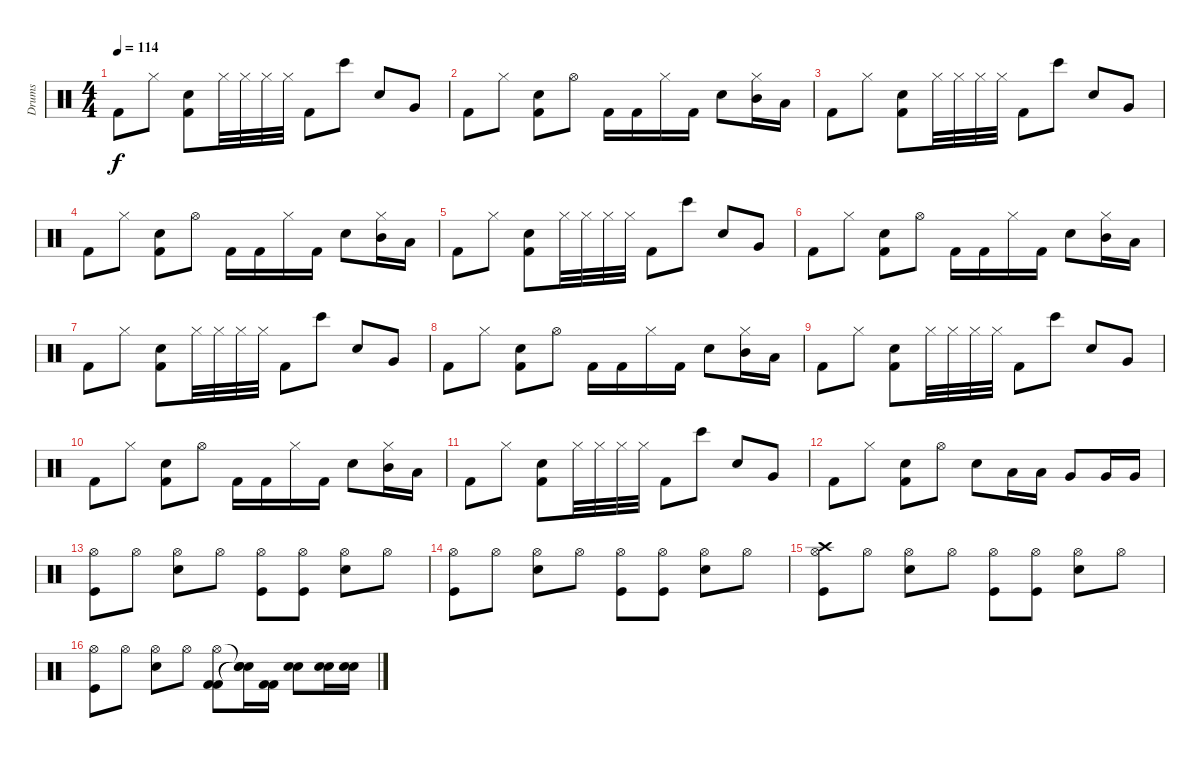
\track ("Drums               " "Drums     ") {instrument percussion}
\staff {score}
\articulation defaults
\ts (4 4)
\tempo 114
\clef neutral
\ks c "Kick (hit) 2".8{dy f} "Hi-Hat (closed)".8
("Snare (hit) 2" "Kick (hit) 2").8 "Hi-Hat (closed)".32 "Hi-Hat (closed)".32 "Hi-Hat (closed)".32 "Hi-Hat (closed)".32 "Kick (hit) 2".8 "Bongo High (hit)".8 "Snare (hit) 2".8 "Very Low Tom (hit)".8 |
"Kick (hit) 2".8 "Hi-Hat (closed)".8 ("Snare (hit) 2" "Kick (hit) 2").8 "Hi-Hat (open)".8 "Kick (hit) 2".16 "Kick (hit) 2".16 "Hi-Hat (closed)".16 "Kick (hit) 2".16 "Snare (hit) 2".8 ("Hi-Hat (closed)" "Mid Tom (hit)").16 "Low Tom (hit)".16 |
"Kick (hit) 2".8 "Hi-Hat (closed)".8 ("Snare (hit) 2" "Kick (hit) 2").8 "Hi-Hat (closed)".32 "Hi-Hat (closed)".32 "Hi-Hat (closed)".32 "Hi-Hat (closed)".32 "Kick (hit) 2".8 "Bongo High (hit)".8 "Snare (hit) 2".8 "Very Low Tom (hit)".8 |
"Kick (hit) 2".8 "Hi-Hat (closed)".8 ("Snare (hit) 2" "Kick (hit) 2").8 "Hi-Hat (open)".8 "Kick (hit) 2".16 "Kick (hit) 2".16 "Hi-Hat (closed)".16 "Kick (hit) 2".16 "Snare (hit) 2".8 ("Hi-Hat (closed)" "Mid Tom (hit)").16 "Low Tom (hit)".16 |
"Kick (hit) 2".8 "Hi-Hat (closed)".8 ("Snare (hit) 2" "Kick (hit) 2").8 "Hi-Hat (closed)".32 "Hi-Hat (closed)".32 "Hi-Hat (closed)".32 "Hi-Hat (closed)".32 "Kick (hit) 2".8 "Bongo High (hit)".8 "Snare (hit) 2".8 "Very Low Tom (hit)".8 |
"Kick (hit) 2".8 "Hi-Hat (closed)".8 ("Snare (hit) 2" "Kick (hit) 2").8 "Hi-Hat (open)".8 "Kick (hit) 2".16 "Kick (hit) 2".16 "Hi-Hat (closed)".16 "Kick (hit) 2".16 "Snare (hit) 2".8 ("Hi-Hat (closed)" "Mid Tom (hit)").16 "Low Tom (hit)".16 |
"Kick (hit) 2".8 "Hi-Hat (closed)".8 ("Snare (hit) 2" "Kick (hit) 2").8 "Hi-Hat (closed)".32 "Hi-Hat (closed)".32 "Hi-Hat (closed)".32 "Hi-Hat (closed)".32 "Kick (hit) 2".8 "Bongo High (hit)".8 "Snare (hit) 2".8 "Very Low Tom (hit)".8 |
"Kick (hit) 2".8 "Hi-Hat (closed)".8 ("Snare (hit) 2" "Kick (hit) 2").8 "Hi-Hat (open)".8 "Kick (hit) 2".16 "Kick (hit) 2".16 "Hi-Hat (closed)".16 "Kick (hit) 2".16 "Snare (hit) 2".8 ("Hi-Hat (closed)" "Mid Tom (hit)").16 "Low Tom (hit)".16 |
"Kick (hit) 2".8 "Hi-Hat (closed)".8 ("Snare (hit) 2" "Kick (hit) 2").8 "Hi-Hat (closed)".32 "Hi-Hat (closed)".32 "Hi-Hat (closed)".32 "Hi-Hat (closed)".32 "Kick (hit) 2".8 "Bongo High (hit)".8 "Snare (hit) 2".8 "Very Low Tom (hit)".8 |
"Kick (hit) 2".8 "Hi-Hat (closed)".8 ("Snare (hit) 2" "Kick (hit) 2").8 "Hi-Hat (open)".8 "Kick (hit) 2".16 "Kick (hit) 2".16 "Hi-Hat (closed)".16 "Kick (hit) 2".16 "Snare (hit) 2".8 ("Hi-Hat (closed)" "Mid Tom (hit)").16 "Low Tom (hit)".16 |
"Kick (hit) 2".8 "Hi-Hat (closed)".8 ("Snare (hit) 2" "Kick (hit) 2").8 "Hi-Hat (closed)".32 "Hi-Hat (closed)".32 "Hi-Hat (closed)".32 "Hi-Hat (closed)".32 "Kick (hit) 2".8 "Bongo High (hit)".8 "Snare (hit) 2".8 "Very Low Tom (hit)".8 |
"Kick (hit) 2".8 "Hi-Hat (closed)".8 ("Snare (hit) 2" "Kick (hit) 2").8 "Hi-Hat (open)".8 "Snare (hit) 2".8 "Low Tom (hit)".16 "Low Tom (hit)".16 "Very Low Tom (hit)".8 "Very Low Tom (hit)".16 "Very Low Tom (hit)".16 |
("Kick (hit)" "Hi-Hat (open)").8 "Hi-Hat (open)".8 ("Snare (hit) 2" "Hi-Hat (open)").8 "Hi-Hat (open)".8 ("Kick (hit)" "Hi-Hat (open)").8 ("Kick (hit)" "Hi-Hat (open)").8 ("Snare (hit) 2" "Hi-Hat (open)").8 "Hi-Hat (open)".8 |
("Kick (hit)" "Hi-Hat (open)").8 "Hi-Hat (open)".8 ("Snare (hit) 2" "Hi-Hat (open)").8 "Hi-Hat (open)".8 ("Kick (hit)" "Hi-Hat (open)").8 ("Kick (hit)" "Hi-Hat (open)").8 ("Snare (hit) 2" "Hi-Hat (open)").8 "Hi-Hat (open)".8 |
("Kick (hit)" "Hi-Hat (open)" "Crash high (hit)").8 "Hi-Hat (open)".8 ("Snare (hit) 2" "Hi-Hat (open)").8 "Hi-Hat (open)".8 ("Kick (hit)" "Hi-Hat (open)").8 ("Kick (hit)" "Hi-Hat (open)").8 ("Snare (hit) 2" "Hi-Hat (open)").8 "Hi-Hat (open)".8 |
("Kick (hit)" "Hi-Hat (open)").8 "Hi-Hat (open)".8 ("Snare (hit) 2" "Hi-Hat (open)").8 "Hi-Hat (open)".8 ("Kick (hit) 2" "Kick (hit) 2" "Hi-Hat (open)").8 ("Snare (hit)"{t} "Snare (hit)"{t} "Snare (hit)"{t}).16 ("Kick (hit) 2" "Kick (hit) 2").16 ("Snare (hit) 2" "Snare (hit) 2").8 ("Snare (hit) 2" "Snare (hit) 2").16 ("Snare (hit) 2" "Snare (hit) 2").16
